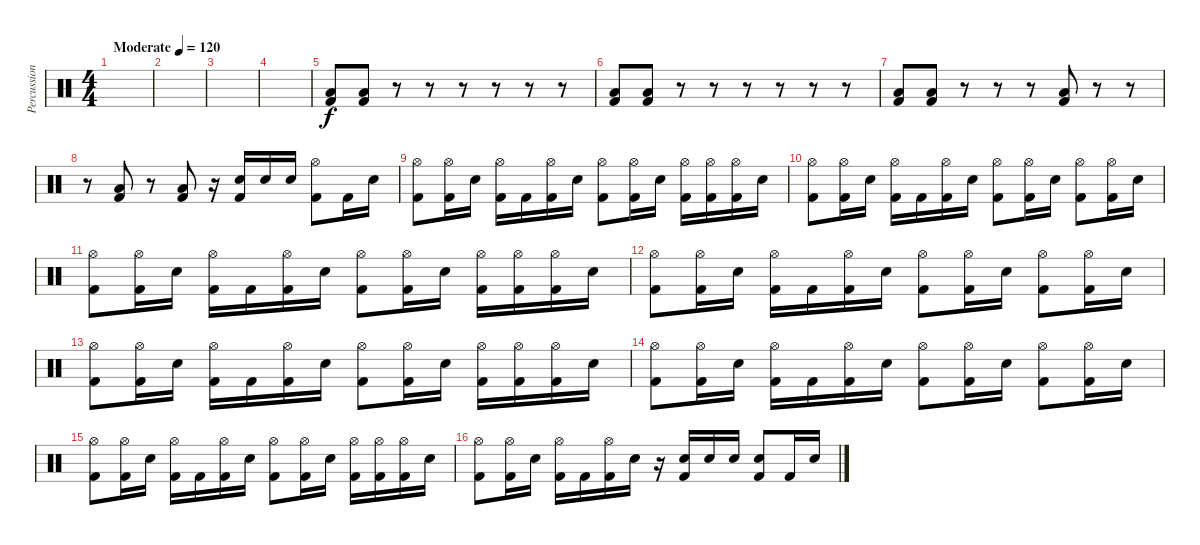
\track ("Percussion" "Percussion") {instrument percussion}
\staff {score}
\articulation defaults
\ts (4 4)
\tempo (120 "Moderate")
\clef neutral
\ks c
|
|
|
|
("Low Tom (hit)" "Kick (hit) 2").8 ("Low Tom (hit)" "Kick (hit) 2").8 r.8 r.8 r.8 r.8 r.8 r.8 |
("Low Tom (hit)" "Kick (hit) 2").8 ("Low Tom (hit)" "Kick (hit) 2").8 r.8 r.8 r.8 r.8 r.8 r.8 |
("Low Tom (hit)" "Kick (hit) 2").8 ("Low Tom (hit)" "Kick (hit) 2").8 r.8 r.8 r.8 ("Low Tom (hit)" "Kick (hit) 2").8 r.8 r.8 |
r.8 ("Low Tom (hit)" "Kick (hit) 2").8 r.8 ("Low Tom (hit)" "Kick (hit) 2").8 r.16 ("Snare (hit) 2" "Kick (hit) 2").16 "Snare (hit) 2".16 "Snare (hit) 2".16 ("Hi-Hat (open)" "Kick (hit) 2").8 "Kick (hit) 2".16 "Snare (hit) 2".16 |
("Hi-Hat (open)" "Kick (hit) 2").8 ("Hi-Hat (open)" "Kick (hit) 2").16 "Snare (hit) 2".16 ("Hi-Hat (open)" "Kick (hit) 2").16 "Kick (hit) 2".16 ("Hi-Hat (open)" "Kick (hit) 2").16 "Snare (hit) 2".16 ("Hi-Hat (open)" "Kick (hit) 2").8 ("Hi-Hat (open)" "Kick (hit) 2").16 "Snare (hit) 2".16 ("Hi-Hat (open)" "Kick (hit) 2").16 ("Hi-Hat (open)" "Kick (hit) 2").16 ("Hi-Hat (open)" "Kick (hit) 2").16 "Snare (hit) 2".16 |
("Hi-Hat (open)" "Kick (hit) 2").8 ("Hi-Hat (open)" "Kick (hit) 2").16 "Snare (hit) 2".16 ("Hi-Hat (open)" "Kick (hit) 2").16 "Kick (hit) 2".16 ("Hi-Hat (open)" "Kick (hit) 2").16 "Snare (hit) 2".16 ("Hi-Hat (open)" "Kick (hit) 2").8 ("Hi-Hat (open)" "Kick (hit) 2").16 "Snare (hit) 2".16 ("Hi-Hat (open)" "Kick (hit) 2").8 ("Hi-Hat (open)" "Kick (hit) 2").16 "Snare (hit) 2".16 |
("Hi-Hat (open)" "Kick (hit) 2").8 ("Hi-Hat (open)" "Kick (hit) 2").16 "Snare (hit) 2".16 ("Hi-Hat (open)" "Kick (hit) 2").16 "Kick (hit) 2".16 ("Hi-Hat (open)" "Kick (hit) 2").16 "Snare (hit) 2".16 ("Hi-Hat (open)" "Kick (hit) 2").8 ("Hi-Hat (open)" "Kick (hit) 2").16 "Snare (hit) 2".16 ("Hi-Hat (open)" "Kick (hit) 2").16 ("Hi-Hat (open)" "Kick (hit) 2").16 ("Hi-Hat (open)" "Kick (hit) 2").16 "Snare (hit) 2".16 |
("Hi-Hat (open)" "Kick (hit) 2").8 ("Hi-Hat (open)" "Kick (hit) 2").16 "Snare (hit) 2".16 ("Hi-Hat (open)" "Kick (hit) 2").16 "Kick (hit) 2".16 ("Hi-Hat (open)" "Kick (hit) 2").16 "Snare (hit) 2".16 ("Hi-Hat (open)" "Kick (hit) 2").8 ("Hi-Hat (open)" "Kick (hit) 2").16 "Snare (hit) 2".16 ("Hi-Hat (open)" "Kick (hit) 2").8 ("Hi-Hat (open)" "Kick (hit) 2").16 "Snare (hit) 2".16 |
("Hi-Hat (open)" "Kick (hit) 2").8 ("Hi-Hat (open)" "Kick (hit) 2").16 "Snare (hit) 2".16 ("Hi-Hat (open)" "Kick (hit) 2").16 "Kick (hit) 2".16 ("Hi-Hat (open)" "Kick (hit) 2").16 "Snare (hit) 2".16 ("Hi-Hat (open)" "Kick (hit) 2").8 ("Hi-Hat (open)" "Kick (hit) 2").16 "Snare (hit) 2".16 ("Hi-Hat (open)" "Kick (hit) 2").16 ("Hi-Hat (open)" "Kick (hit) 2").16 ("Hi-Hat (open)" "Kick (hit) 2").16 "Snare (hit) 2".16 |
("Hi-Hat (open)" "Kick (hit) 2").8 ("Hi-Hat (open)" "Kick (hit) 2").16 "Snare (hit) 2".16 ("Hi-Hat (open)" "Kick (hit) 2").16 "Kick (hit) 2".16 ("Hi-Hat (open)" "Kick (hit) 2").16 "Snare (hit) 2".16 ("Hi-Hat (open)" "Kick (hit) 2").8 ("Hi-Hat (open)" "Kick (hit) 2").16 "Snare (hit) 2".16 ("Hi-Hat (open)" "Kick (hit) 2").8 ("Hi-Hat (open)" "Kick (hit) 2").16 "Snare (hit) 2".16 |
("Hi-Hat (open)" "Kick (hit) 2").8 ("Hi-Hat (open)" "Kick (hit) 2").16 "Snare (hit) 2".16 ("Hi-Hat (open)" "Kick (hit) 2").16 "Kick (hit) 2".16 ("Hi-Hat (open)" "Kick (hit) 2").16 "Snare (hit) 2".16 ("Hi-Hat (open)" "Kick (hit) 2").8 ("Hi-Hat (open)" "Kick (hit) 2").16 "Snare (hit) 2".16 ("Hi-Hat (open)" "Kick (hit) 2").16 ("Hi-Hat (open)" "Kick (hit) 2").16 ("Hi-Hat (open)" "Kick (hit) 2").16 "Snare (hit) 2".16 |
("Hi-Hat (open)" "Kick (hit) 2").8 ("Hi-Hat (open)" "Kick (hit) 2").16 "Snare (hit) 2".16 ("Hi-Hat (open)" "Kick (hit) 2").16 "Kick (hit) 2".16 ("Hi-Hat (open)" "Kick (hit) 2").16 "Snare (hit) 2".16 r.16 ("Snare (hit) 2" "Kick (hit) 2").16 "Snare (hit) 2".16 "Snare (hit) 2".16 ("Snare (hit) 2" "Kick (hit) 2").8 "Kick (hit) 2".16 "Snare (hit) 2".16
